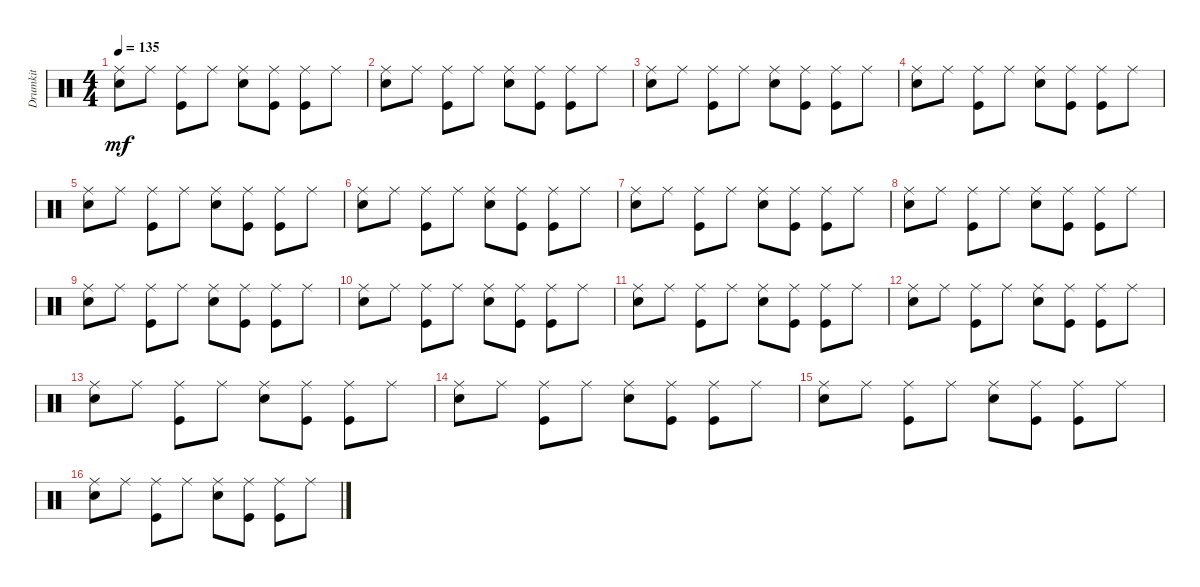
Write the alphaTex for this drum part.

\track ("Drumkit" "Drumkit") {instrument percussion}
\staff {score}
\articulation defaults
\ts (4 4)
\tempo 135
\clef neutral
\ks c
("Snare (hit) 2" "Ride (middle)").8{dy mf} "Ride (middle)".8 ("Kick (hit)" "Ride (middle)").8 "Ride (middle)".8 ("Snare (hit) 2" "Ride (middle)").8 ("Kick (hit)" "Ride (middle)").8 ("Kick (hit)" "Ride (middle)").8 "Ride (middle)".8 |
("Snare (hit) 2" "Ride (middle)").8 "Ride (middle)".8 ("Kick (hit)" "Ride (middle)").8 "Ride (middle)".8 ("Snare (hit) 2" "Ride (middle)").8 ("Kick (hit)" "Ride (middle)").8 ("Kick (hit)" "Ride (middle)").8 "Ride (middle)".8 |
("Snare (hit) 2" "Ride (middle)").8 "Ride (middle)".8 ("Kick (hit)" "Ride (middle)").8 "Ride (middle)".8 ("Snare (hit) 2" "Ride (middle)").8 ("Kick (hit)" "Ride (middle)").8 ("Kick (hit)" "Ride (middle)").8 "Ride (middle)".8 |
("Snare (hit) 2" "Ride (middle)").8 "Ride (middle)".8 ("Kick (hit)" "Ride (middle)").8 "Ride (middle)".8 ("Snare (hit) 2" "Ride (middle)").8 ("Kick (hit)" "Ride (middle)").8 ("Kick (hit)" "Ride (middle)").8 "Ride (middle)".8 |
("Snare (hit) 2" "Ride (middle)").8 "Ride (middle)".8 ("Kick (hit)" "Ride (middle)").8 "Ride (middle)".8 ("Snare (hit) 2" "Ride (middle)").8 ("Kick (hit)" "Ride (middle)").8 ("Kick (hit)" "Ride (middle)").8 "Ride (middle)".8 |
("Snare (hit) 2" "Ride (middle)").8 "Ride (middle)".8 ("Kick (hit)" "Ride (middle)").8 "Ride (middle)".8 ("Snare (hit) 2" "Ride (middle)").8 ("Kick (hit)" "Ride (middle)").8 ("Kick (hit)" "Ride (middle)").8 "Ride (middle)".8 |
("Snare (hit) 2" "Ride (middle)").8 "Ride (middle)".8 ("Kick (hit)" "Ride (middle)").8 "Ride (middle)".8 ("Snare (hit) 2" "Ride (middle)").8 ("Kick (hit)" "Ride (middle)").8 ("Kick (hit)" "Ride (middle)").8 "Ride (middle)".8 |
("Snare (hit) 2" "Ride (middle)").8 "Ride (middle)".8 ("Kick (hit)" "Ride (middle)").8 "Ride (middle)".8 ("Snare (hit) 2" "Ride (middle)").8 ("Kick (hit)" "Ride (middle)").8 ("Kick (hit)" "Ride (middle)").8 "Ride (middle)".8 |
("Snare (hit) 2" "Ride (middle)").8 "Ride (middle)".8 ("Kick (hit)" "Ride (middle)").8 "Ride (middle)".8 ("Snare (hit) 2" "Ride (middle)").8 ("Kick (hit)" "Ride (middle)").8 ("Kick (hit)" "Ride (middle)").8 "Ride (middle)".8 |
("Snare (hit) 2" "Ride (middle)").8 "Ride (middle)".8 ("Kick (hit)" "Ride (middle)").8 "Ride (middle)".8 ("Snare (hit) 2" "Ride (middle)").8 ("Kick (hit)" "Ride (middle)").8 ("Kick (hit)" "Ride (middle)").8 "Ride (middle)".8 |
("Snare (hit) 2" "Ride (middle)").8 "Ride (middle)".8 ("Kick (hit)" "Ride (middle)").8 "Ride (middle)".8 ("Snare (hit) 2" "Ride (middle)").8 ("Kick (hit)" "Ride (middle)").8 ("Kick (hit)" "Ride (middle)").8 "Ride (middle)".8 |
("Snare (hit) 2" "Ride (middle)").8 "Ride (middle)".8 ("Kick (hit)" "Ride (middle)").8 "Ride (middle)".8 ("Snare (hit) 2" "Ride (middle)").8 ("Kick (hit)" "Ride (middle)").8 ("Kick (hit)" "Ride (middle)").8 "Ride (middle)".8 |
("Snare (hit) 2" "Ride (middle)").8 "Ride (middle)".8 ("Kick (hit)" "Ride (middle)").8 "Ride (middle)".8 ("Snare (hit) 2" "Ride (middle)").8 ("Kick (hit)" "Ride (middle)").8 ("Kick (hit)" "Ride (middle)").8 "Ride (middle)".8 |
("Snare (hit) 2" "Ride (middle)").8 "Ride (middle)".8 ("Kick (hit)" "Ride (middle)").8 "Ride (middle)".8 ("Snare (hit) 2" "Ride (middle)").8 ("Kick (hit)" "Ride (middle)").8 ("Kick (hit)" "Ride (middle)").8 "Ride (middle)".8 |
("Snare (hit) 2" "Ride (middle)").8 "Ride (middle)".8 ("Kick (hit)" "Ride (middle)").8 "Ride (middle)".8 ("Snare (hit) 2" "Ride (middle)").8 ("Kick (hit)" "Ride (middle)").8 ("Kick (hit)" "Ride (middle)").8 "Ride (middle)".8 |
("Snare (hit) 2" "Ride (middle)").8 "Ride (middle)".8 ("Kick (hit)" "Ride (middle)").8 "Ride (middle)".8 ("Snare (hit) 2" "Ride (middle)").8 ("Kick (hit)" "Ride (middle)").8 ("Kick (hit)" "Ride (middle)").8 "Ride (middle)".8
